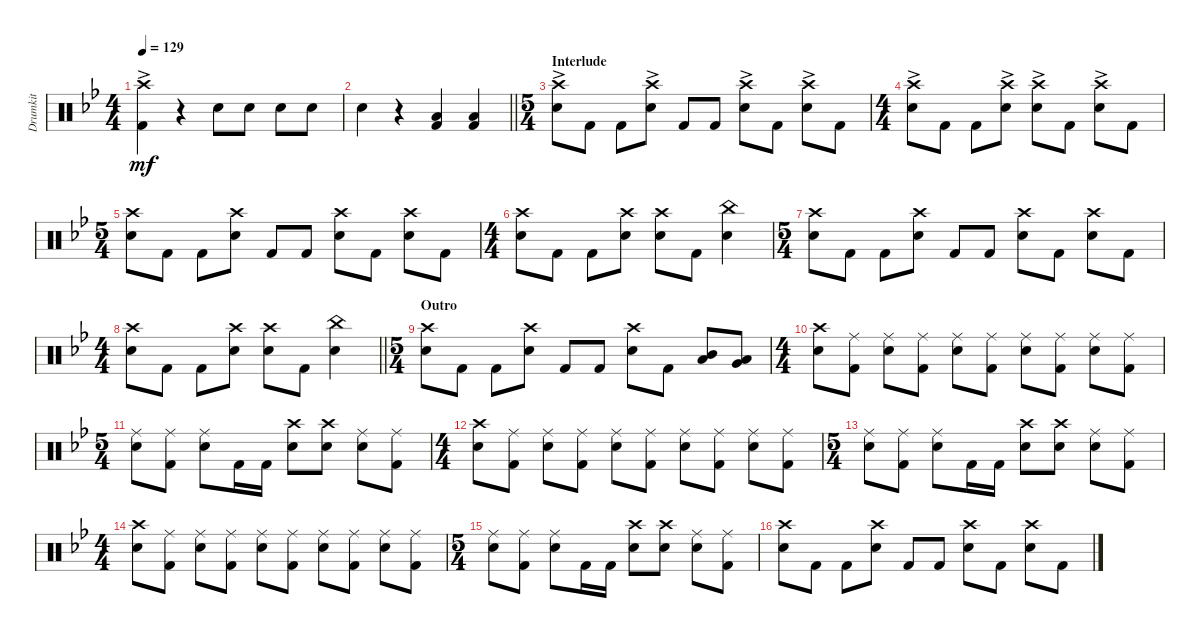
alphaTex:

\track ("Drumkit" "Drumkit") {instrument percussion}
\staff {score}
\articulation defaults
\ts (4 4)
\tempo 129
\clef neutral
\ks bb
("Crash high (hit)"{ac} "Kick (hit) 2"{ac}).4{dy mf} r.4 "Snare (hit) 2".8 "Snare (hit) 2".8 "Snare (hit) 2".8 "Snare (hit) 2".8 |
\barLineRight lightlight "Snare (hit) 2".4
r.4 ("Kick (hit) 2" "Low Tom (hit)").4 ("Kick (hit) 2" "Low Tom (hit)").4 |
\ts (5 4)
\section ("" "Interlude")
("Crash high (hit)"{ac} "Snare (hit) 2"{ac}).8 "Kick (hit) 2".8 "Kick (hit) 2".8 ("Crash high (hit)"{ac} "Snare (hit) 2"{ac}).8 "Kick (hit) 2".8 "Kick (hit) 2".8 ("Crash high (hit)"{ac} "Snare (hit) 2"{ac}).8 "Kick (hit) 2".8 ("Crash high (hit)"{ac} "Snare (hit) 2"{ac}).8 "Kick (hit) 2".8 |
\ts (4 4)
("Crash high (hit)"{ac} "Snare (hit) 2"{ac}).8 "Kick (hit) 2".8 "Kick (hit) 2".8 ("Crash high (hit)"{ac} "Snare (hit) 2"{ac}).8 ("Crash high (hit)"{ac} "Snare (hit) 2"{ac}).8 "Kick (hit) 2".8 ("Crash high (hit)"{ac} "Snare (hit) 2"{ac}).8 "Kick (hit) 2".8 |
\ts (5 4)
("Crash high (hit)" "Snare (hit) 2").8 "Kick (hit) 2".8 "Kick (hit) 2".8 ("Crash high (hit)" "Snare (hit) 2").8 "Kick (hit) 2".8 "Kick (hit) 2".8 ("Crash high (hit)" "Snare (hit) 2").8 "Kick (hit) 2".8 ("Crash high (hit)" "Snare (hit) 2").8 "Kick (hit) 2".8 |
\ts (4 4)
("Crash high (hit)" "Snare (hit) 2").8 "Kick (hit) 2".8 "Kick (hit) 2".8 ("Crash high (hit)" "Snare (hit) 2").8 ("Crash high (hit)" "Snare (hit) 2").8 "Kick (hit) 2".8 ("Snare (hit) 2" "China (hit)").4 |
\ts (5 4)
("Crash high (hit)" "Snare (hit) 2").8 "Kick (hit) 2".8 "Kick (hit) 2".8 ("Crash high (hit)" "Snare (hit) 2").8 "Kick (hit) 2".8 "Kick (hit) 2".8 ("Crash high (hit)" "Snare (hit) 2").8 "Kick (hit) 2".8 ("Crash high (hit)" "Snare (hit) 2").8 "Kick (hit) 2".8 |
\ts (4 4)
\barLineRight lightlight
("Crash high (hit)" "Snare (hit) 2").8 "Kick (hit) 2".8 "Kick (hit) 2".8 ("Crash high (hit)" "Snare (hit) 2").8 ("Crash high (hit)" "Snare (hit) 2").8 "Kick (hit) 2".8 ("Snare (hit) 2" "China (hit)").4 |
\ts (5 4)
\section ("" "Outro")
("Crash high (hit)" "Snare (hit) 2").8 "Kick (hit) 2".8 "Kick (hit) 2".8 ("Crash high (hit)" "Snare (hit) 2").8 "Kick (hit) 2".8 "Kick (hit) 2".8 ("Crash high (hit)" "Snare (hit) 2").8 "Kick (hit) 2".8 ("Low Tom (hit)" "Mid Tom (hit)").8 ("Very Low Tom (hit)" "Low Tom (hit)").8 |
\ts (4 4)
("Crash high (hit)" "Snare (hit) 2").8 ("Ride (middle)" "Kick (hit) 2").8 ("Ride (middle)" "Snare (hit) 2").8 ("Ride (middle)" "Kick (hit) 2").8 ("Ride (middle)" "Snare (hit) 2").8 ("Ride (middle)" "Kick (hit) 2").8 ("Ride (middle)" "Snare (hit) 2").8 ("Ride (middle)" "Kick (hit) 2").8 ("Ride (middle)" "Snare (hit) 2").8 ("Ride (middle)" "Kick (hit) 2").8 |
\ts (5 4)
("Ride (middle)" "Snare (hit) 2").8 ("Ride (middle)" "Kick (hit) 2").8 ("Ride (middle)" "Snare (hit) 2").8 "Kick (hit) 2".16 "Kick (hit) 2".16 ("Crash high (hit)" "Snare (hit) 2").8 ("Crash high (hit)" "Snare (hit) 2").8 ("Ride (middle)" "Snare (hit) 2").8 ("Ride (middle)" "Kick (hit) 2").8 |
\ts (4 4)
("Crash high (hit)" "Snare (hit) 2").8 ("Ride (middle)" "Kick (hit) 2").8 ("Ride (middle)" "Snare (hit) 2").8 ("Ride (middle)" "Kick (hit) 2").8 ("Ride (middle)" "Snare (hit) 2").8 ("Ride (middle)" "Kick (hit) 2").8 ("Ride (middle)" "Snare (hit) 2").8 ("Ride (middle)" "Kick (hit) 2").8 ("Ride (middle)" "Snare (hit) 2").8 ("Ride (middle)" "Kick (hit) 2").8 |
\ts (5 4)
("Ride (middle)" "Snare (hit) 2").8 ("Ride (middle)" "Kick (hit) 2").8 ("Ride (middle)" "Snare (hit) 2").8 "Kick (hit) 2".16 "Kick (hit) 2".16 ("Crash high (hit)" "Snare (hit) 2").8 ("Crash high (hit)" "Snare (hit) 2").8 ("Ride (middle)" "Snare (hit) 2").8 ("Ride (middle)" "Kick (hit) 2").8 |
\ts (4 4)
("Crash high (hit)" "Snare (hit) 2").8 ("Ride (middle)" "Kick (hit) 2").8 ("Ride (middle)" "Snare (hit) 2").8 ("Ride (middle)" "Kick (hit) 2").8 ("Ride (middle)" "Snare (hit) 2").8 ("Ride (middle)" "Kick (hit) 2").8 ("Ride (middle)" "Snare (hit) 2").8 ("Ride (middle)" "Kick (hit) 2").8 ("Ride (middle)" "Snare (hit) 2").8 ("Ride (middle)" "Kick (hit) 2").8 |
\ts (5 4)
("Ride (middle)" "Snare (hit) 2").8 ("Ride (middle)" "Kick (hit) 2").8 ("Ride (middle)" "Snare (hit) 2").8 "Kick (hit) 2".16 "Kick (hit) 2".16 ("Crash high (hit)" "Snare (hit) 2").8 ("Crash high (hit)" "Snare (hit) 2").8 ("Ride (middle)" "Snare (hit) 2").8 ("Ride (middle)" "Kick (hit) 2").8 |
("Crash high (hit)" "Snare (hit) 2").8 "Kick (hit) 2".8 "Kick (hit) 2".8 ("Crash high (hit)" "Snare (hit) 2").8 "Kick (hit) 2".8 "Kick (hit) 2".8 ("Crash high (hit)" "Snare (hit) 2").8 "Kick (hit) 2".8 ("Crash high (hit)" "Snare (hit) 2").8 "Kick (hit) 2".8
